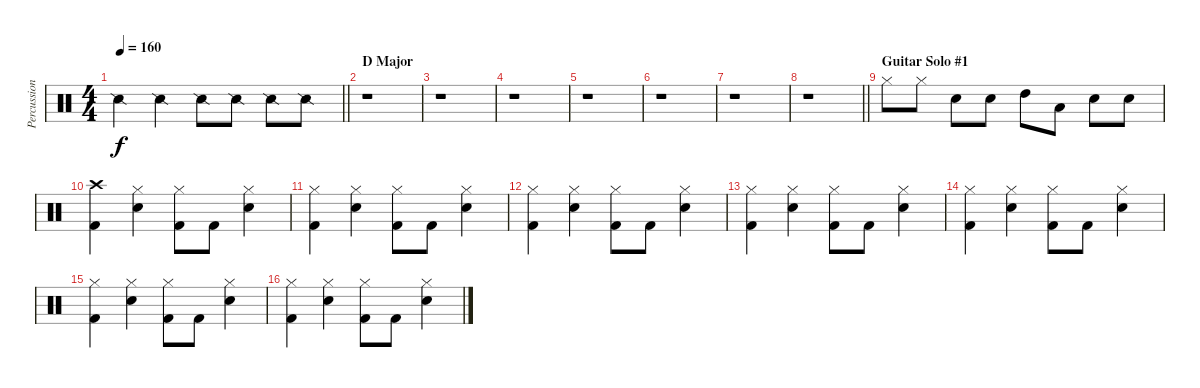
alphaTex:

\track ("Percussion" "Percussion") {instrument percussion}
\staff {score}
\articulation defaults
\ts (4 4)
\tempo 160
\clef neutral
\barLineRight lightlight
\ks c "Snare (side stick) 2".4{dy f} "Snare (side stick) 2".4 "Snare (side stick) 2".8 "Snare (side stick) 2".8 "Snare (side stick) 2".8 "Snare (side stick) 2".8
|
\section ("" "D Major")
r.1 |
r.1 |
r.1 |
r.1 |
r.1 |
r.1 |
\barLineRight lightlight
r.1 |
\section ("" "Guitar Solo #1")
"Hi-Hat (closed)".8 "Hi-Hat (closed)".8 "Electric Snare (hit)".8 "Electric Snare (hit)".8 "High Tom (hit)".8 "Low Tom (hit)".8 "Electric Snare (hit)".8 "Electric Snare (hit)".8 |
("Crash high (hit)" "Kick (hit) 2").4 ("Hi-Hat (closed)" "Electric Snare (hit)").4 ("Hi-Hat (closed)" "Kick (hit) 2").8 "Kick (hit) 2".8 ("Hi-Hat (closed)" "Electric Snare (hit)").4 |
("Hi-Hat (closed)" "Kick (hit) 2").4 ("Hi-Hat (closed)" "Electric Snare (hit)").4 ("Hi-Hat (closed)" "Kick (hit) 2").8 "Kick (hit) 2".8 ("Hi-Hat (closed)" "Electric Snare (hit)").4 |
("Hi-Hat (closed)" "Kick (hit) 2").4 ("Hi-Hat (closed)" "Electric Snare (hit)").4 ("Hi-Hat (closed)" "Kick (hit) 2").8 "Kick (hit) 2".8 ("Hi-Hat (closed)" "Electric Snare (hit)").4 |
("Hi-Hat (closed)" "Kick (hit) 2").4 ("Hi-Hat (closed)" "Electric Snare (hit)").4 ("Hi-Hat (closed)" "Kick (hit) 2").8 "Kick (hit) 2".8 ("Hi-Hat (closed)" "Electric Snare (hit)").4 |
("Hi-Hat (closed)" "Kick (hit) 2").4 ("Hi-Hat (closed)" "Electric Snare (hit)").4 ("Hi-Hat (closed)" "Kick (hit) 2").8 "Kick (hit) 2".8 ("Hi-Hat (closed)" "Electric Snare (hit)").4 |
("Hi-Hat (closed)" "Kick (hit) 2").4 ("Hi-Hat (closed)" "Electric Snare (hit)").4 ("Hi-Hat (closed)" "Kick (hit) 2").8 "Kick (hit) 2".8 ("Hi-Hat (closed)" "Electric Snare (hit)").4 |
("Hi-Hat (closed)" "Kick (hit) 2").4 ("Hi-Hat (closed)" "Electric Snare (hit)").4 ("Hi-Hat (closed)" "Kick (hit) 2").8 "Kick (hit) 2".8 ("Hi-Hat (closed)" "Electric Snare (hit)").4
